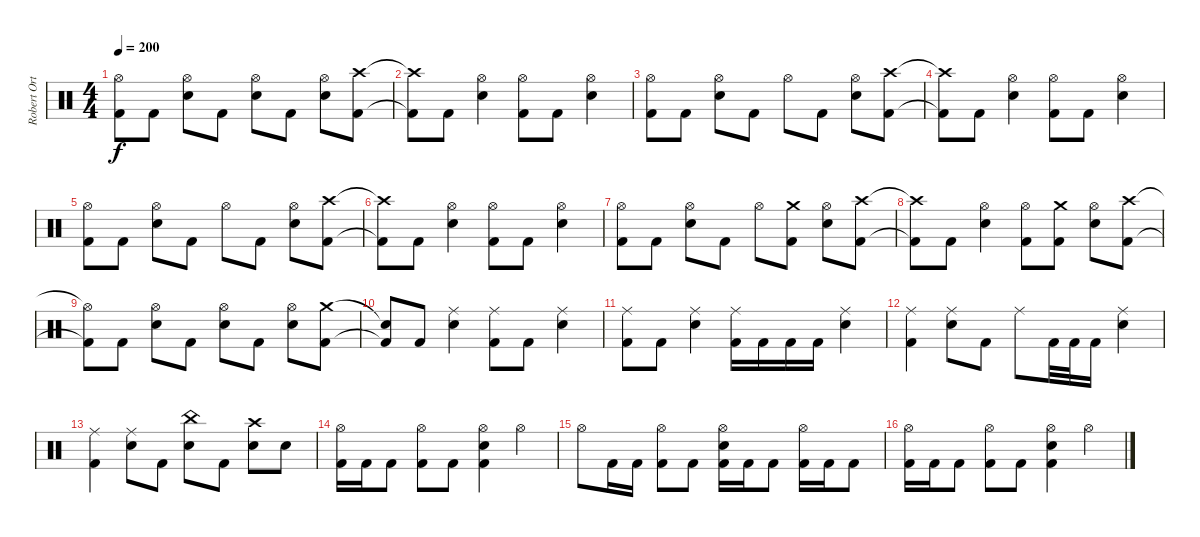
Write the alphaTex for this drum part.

\track ("Robert Ortiz - Drums" "Robert Ort") {instrument percussion}
\staff {score}
\articulation defaults
\ts (4 4)
\tempo 200
\clef neutral
\ks c
("Hi-Hat (open)" "Kick (hit) 2").8{dy f} "Kick (hit) 2".8 ("Hi-Hat (open)" "Electric Snare (hit)").8 "Kick (hit) 2".8 ("Hi-Hat (open)" "Electric Snare (hit)").8 "Kick (hit) 2".8 ("Hi-Hat (open)" "Electric Snare (hit)").8 ("Crash high (hit)" "Kick (hit) 2").8 |
("Crash high (hit)"{t} "Kick (hit) 2"{t}).8 "Kick (hit) 2".8 ("Hi-Hat (open)" "Electric Snare (hit)").4 ("Hi-Hat (open)" "Kick (hit) 2").8 "Kick (hit) 2".8 ("Hi-Hat (open)" "Electric Snare (hit)").4 |
("Hi-Hat (open)" "Kick (hit) 2").8 "Kick (hit) 2".8 ("Hi-Hat (open)" "Electric Snare (hit)").8 "Kick (hit) 2".8 "Hi-Hat (open)".8 "Kick (hit) 2".8 ("Hi-Hat (open)" "Electric Snare (hit)").8 ("Crash high (hit)" "Kick (hit) 2").8 |
("Crash high (hit)"{t} "Kick (hit) 2"{t}).8 "Kick (hit) 2".8 ("Hi-Hat (open)" "Electric Snare (hit)").4 ("Hi-Hat (open)" "Kick (hit) 2").8 "Kick (hit) 2".8 ("Hi-Hat (open)" "Electric Snare (hit)").4 |
("Hi-Hat (open)" "Kick (hit) 2").8 "Kick (hit) 2".8 ("Hi-Hat (open)" "Electric Snare (hit)").8 "Kick (hit) 2".8 "Hi-Hat (open)".8 "Kick (hit) 2".8 ("Hi-Hat (open)" "Electric Snare (hit)").8 ("Crash high (hit)" "Kick (hit) 2").8 |
("Crash high (hit)"{t} "Kick (hit) 2"{t}).8 "Kick (hit) 2".8 ("Hi-Hat (open)" "Electric Snare (hit)").4 ("Hi-Hat (open)" "Kick (hit) 2").8 "Kick (hit) 2".8 ("Hi-Hat (open)" "Electric Snare (hit)").4 |
("Hi-Hat (open)" "Kick (hit) 2").8 "Kick (hit) 2".8 ("Hi-Hat (open)" "Electric Snare (hit)").8 "Kick (hit) 2".8 "Hi-Hat (open)".8 ("Crash medium (hit)" "Kick (hit) 2").8 ("Hi-Hat (open)" "Electric Snare (hit)").8 ("Crash high (hit)" "Kick (hit) 2").8 |
("Crash high (hit)"{t} "Kick (hit) 2"{t}).8 "Kick (hit) 2".8 ("Hi-Hat (open)" "Electric Snare (hit)").4 ("Hi-Hat (open)" "Kick (hit) 2").8 ("Crash medium (hit)" "Kick (hit) 2").8 ("Hi-Hat (open)" "Electric Snare (hit)").8 ("Crash high (hit)" "Kick (hit) 2").8 |
("Hi-Hat (open)"{t} "Kick (hit) 2"{t}).8 "Kick (hit) 2".8 ("Hi-Hat (open)" "Electric Snare (hit)").8 "Kick (hit) 2".8 ("Hi-Hat (open)" "Electric Snare (hit)").8 "Kick (hit) 2".8 ("Hi-Hat (open)" "Electric Snare (hit)").8 ("Crash medium (hit)" "Kick (hit) 2").8 |
("Snare (hit)"{t} "Kick (hit) 2"{t}).8 "Kick (hit) 2".8 ("Ride (middle)" "Electric Snare (hit)").4 ("Ride (middle)" "Kick (hit) 2").8 "Kick (hit) 2".8 ("Ride (middle)" "Electric Snare (hit)").4 |
("Ride (middle)" "Kick (hit) 2").8 "Kick (hit) 2".8 ("Ride (middle)" "Electric Snare (hit)").4 ("Ride (middle)" "Kick (hit) 2").16 "Kick (hit) 2".16 "Kick (hit) 2".16 "Kick (hit) 2".16 ("Ride (middle)" "Electric Snare (hit)").4 |
("Ride (middle)" "Kick (hit) 2").4 ("Ride (middle)" "Electric Snare (hit)").8 "Kick (hit) 2".8 "Ride (middle)".8 "Kick (hit) 2".32 "Kick (hit) 2".32 "Kick (hit) 2".16 ("Ride (middle)" "Electric Snare (hit)").4 |
("Ride (middle)" "Kick (hit) 2").4 ("Ride (middle)" "Electric Snare (hit)").8 "Kick (hit) 2".8 ("China (hit)" "Electric Snare (hit)").8 "Kick (hit) 2".8 ("Crash high (hit)" "Electric Snare (hit)").8 "Electric Snare (hit)".8 |
("Hi-Hat (open)" "Kick (hit) 2").16 "Kick (hit) 2".16 "Kick (hit) 2".8 ("Hi-Hat (open)" "Kick (hit) 2").8 "Kick (hit) 2".8 ("Hi-Hat (open)" "Electric Snare (hit)" "Kick (hit) 2").4 "Hi-Hat (open)".4 |
"Hi-Hat (open)".8 "Kick (hit) 2".16 "Kick (hit) 2".16 ("Hi-Hat (open)" "Kick (hit) 2").8 "Kick (hit) 2".8 ("Hi-Hat (open)" "Electric Snare (hit)" "Kick (hit) 2").16 "Kick (hit) 2".16 "Kick (hit) 2".8 ("Hi-Hat (open)" "Kick (hit) 2").16 "Kick (hit) 2".16 "Kick (hit) 2".8 |
("Hi-Hat (open)" "Kick (hit) 2").16 "Kick (hit) 2".16 "Kick (hit) 2".8 ("Hi-Hat (open)" "Kick (hit) 2").8 "Kick (hit) 2".8 ("Hi-Hat (open)" "Electric Snare (hit)" "Kick (hit) 2").4 "Hi-Hat (open)".4
